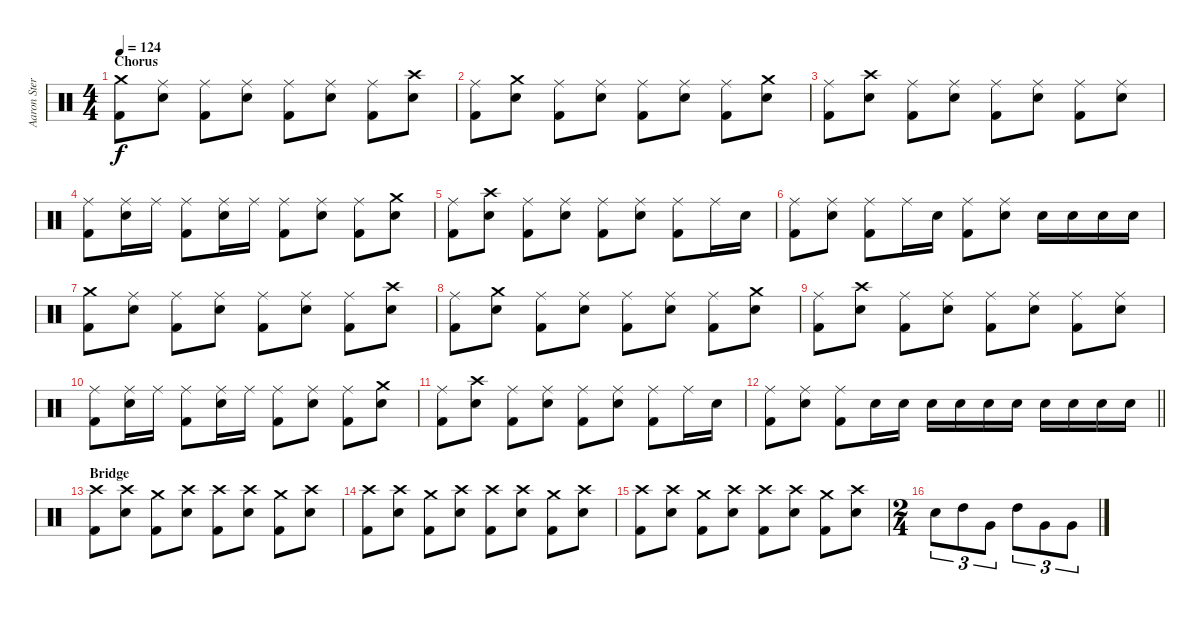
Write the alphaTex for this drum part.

\track ("Aaron Stern" "Aaron Ster") {instrument percussion}
\staff {score}
\articulation defaults
\ts (4 4)
\section ("" "Chorus")
\tempo 124
\clef neutral
\ks c
("Crash medium (hit)" "Kick (hit) 2").8{dy f} ("Ride (middle)" "Snare (hit) 2").8 ("Ride (middle)" "Kick (hit) 2").8 ("Ride (middle)" "Snare (hit) 2").8 ("Ride (middle)" "Kick (hit) 2").8 ("Ride (middle)" "Snare (hit) 2").8 ("Ride (middle)" "Kick (hit) 2").8 ("Crash high (hit)" "Snare (hit) 2").8 |
("Ride (middle)" "Kick (hit) 2").8 ("Crash medium (hit)" "Snare (hit) 2").8 ("Ride (middle)" "Kick (hit) 2").8 ("Ride (middle)" "Snare (hit) 2").8 ("Ride (middle)" "Kick (hit) 2").8 ("Ride (middle)" "Snare (hit) 2").8 ("Ride (middle)" "Kick (hit) 2").8 ("Crash medium (hit)" "Snare (hit) 2").8 |
("Ride (middle)" "Kick (hit) 2").8 ("Crash high (hit)" "Snare (hit) 2").8 ("Ride (middle)" "Kick (hit) 2").8 ("Ride (middle)" "Snare (hit) 2").8 ("Ride (middle)" "Kick (hit) 2").8 ("Ride (middle)" "Snare (hit) 2").8 ("Ride (middle)" "Kick (hit) 2").8 ("Ride (middle)" "Snare (hit) 2").8 |
("Ride (middle)" "Kick (hit) 2").8 ("Ride (middle)" "Snare (hit) 2").16 "Ride (middle)".16 ("Ride (middle)" "Kick (hit) 2").8 ("Ride (middle)" "Snare (hit) 2").16 "Ride (middle)".16 ("Ride (middle)" "Kick (hit) 2").8 ("Ride (middle)" "Snare (hit) 2").8 ("Ride (middle)" "Kick (hit) 2").8 ("Crash medium (hit)" "Snare (hit) 2").8 |
("Ride (middle)" "Kick (hit) 2").8 ("Crash high (hit)" "Snare (hit) 2").8 ("Ride (middle)" "Kick (hit) 2").8 ("Ride (middle)" "Snare (hit) 2").8 ("Ride (middle)" "Kick (hit) 2").8 ("Ride (middle)" "Snare (hit) 2").8 ("Ride (middle)" "Kick (hit) 2").8 "Ride (middle)".16 "Snare (hit) 2".16 |
("Ride (middle)" "Kick (hit) 2").8 ("Ride (middle)" "Snare (hit) 2").8 ("Ride (middle)" "Kick (hit) 2").8 "Ride (middle)".16 "Snare (hit) 2".16 ("Ride (middle)" "Kick (hit) 2").8 ("Ride (middle)" "Snare (hit) 2").8 "Snare (hit) 2".16 "Snare (hit) 2".16 "Snare (hit) 2".16 "Snare (hit) 2".16 |
("Crash medium (hit)" "Kick (hit) 2").8 ("Ride (middle)" "Snare (hit) 2").8 ("Ride (middle)" "Kick (hit) 2").8 ("Ride (middle)" "Snare (hit) 2").8 ("Ride (middle)" "Kick (hit) 2").8 ("Ride (middle)" "Snare (hit) 2").8 ("Ride (middle)" "Kick (hit) 2").8 ("Crash high (hit)" "Snare (hit) 2").8 |
("Ride (middle)" "Kick (hit) 2").8 ("Crash medium (hit)" "Snare (hit) 2").8 ("Ride (middle)" "Kick (hit) 2").8 ("Ride (middle)" "Snare (hit) 2").8 ("Ride (middle)" "Kick (hit) 2").8 ("Ride (middle)" "Snare (hit) 2").8 ("Ride (middle)" "Kick (hit) 2").8 ("Crash medium (hit)" "Snare (hit) 2").8 |
("Ride (middle)" "Kick (hit) 2").8 ("Crash high (hit)" "Snare (hit) 2").8 ("Ride (middle)" "Kick (hit) 2").8 ("Ride (middle)" "Snare (hit) 2").8 ("Ride (middle)" "Kick (hit) 2").8 ("Ride (middle)" "Snare (hit) 2").8 ("Ride (middle)" "Kick (hit) 2").8 ("Ride (middle)" "Snare (hit) 2").8 |
("Ride (middle)" "Kick (hit) 2").8 ("Ride (middle)" "Snare (hit) 2").16 "Ride (middle)".16 ("Ride (middle)" "Kick (hit) 2").8 ("Ride (middle)" "Snare (hit) 2").16 "Ride (middle)".16 ("Ride (middle)" "Kick (hit) 2").8 ("Ride (middle)" "Snare (hit) 2").8 ("Ride (middle)" "Kick (hit) 2").8 ("Crash medium (hit)" "Snare (hit) 2").8 |
("Ride (middle)" "Kick (hit) 2").8 ("Crash high (hit)" "Snare (hit) 2").8 ("Ride (middle)" "Kick (hit) 2").8 ("Ride (middle)" "Snare (hit) 2").8 ("Ride (middle)" "Kick (hit) 2").8 ("Ride (middle)" "Snare (hit) 2").8 ("Ride (middle)" "Kick (hit) 2").8 "Ride (middle)".16 "Snare (hit) 2".16 |
\barLineRight lightlight
("Ride (middle)" "Kick (hit) 2").8 ("Ride (middle)" "Snare (hit) 2").8 ("Ride (middle)" "Kick (hit) 2").8 "Snare (hit) 2".16 "Snare (hit) 2".16 "Snare (hit) 2".16 "Snare (hit) 2".16 "Snare (hit) 2".16 "Snare (hit) 2".16 "Snare (hit) 2".16 "Snare (hit) 2".16 "Snare (hit) 2".16 "Snare (hit) 2".16 |
\section ("" "Bridge")
("Crash high (hit)" "Kick (hit) 2").8 ("Crash high (hit)" "Snare (hit) 2").8 ("Crash medium (hit)" "Kick (hit) 2").8 ("Crash high (hit)" "Snare (hit) 2").8 ("Crash high (hit)" "Kick (hit) 2").8 ("Crash high (hit)" "Snare (hit) 2").8 ("Crash medium (hit)" "Kick (hit) 2").8 ("Crash high (hit)" "Snare (hit) 2").8 |
("Crash high (hit)" "Kick (hit) 2").8 ("Crash high (hit)" "Snare (hit) 2").8 ("Crash medium (hit)" "Kick (hit) 2").8 ("Crash high (hit)" "Snare (hit) 2").8 ("Crash high (hit)" "Kick (hit) 2").8 ("Crash high (hit)" "Snare (hit) 2").8 ("Crash medium (hit)" "Kick (hit) 2").8 ("Crash high (hit)" "Snare (hit) 2").8 |
("Crash high (hit)" "Kick (hit) 2").8 ("Crash high (hit)" "Snare (hit) 2").8 ("Crash medium (hit)" "Kick (hit) 2").8 ("Crash high (hit)" "Snare (hit) 2").8 ("Crash high (hit)" "Kick (hit) 2").8 ("Crash high (hit)" "Snare (hit) 2").8 ("Crash medium (hit)" "Kick (hit) 2").8 ("Crash high (hit)" "Snare (hit) 2").8 |
\ts (2 4)
"Snare (hit) 2".8{tu (3 2)} "High Tom (hit)".8{tu (3 2)} "Very Low Tom (hit)".8{tu (3 2)} "High Tom (hit)".8{tu (3 2)} "Very Low Tom (hit)".8{tu (3 2)} "Very Low Tom (hit)".8{tu (3 2)}
